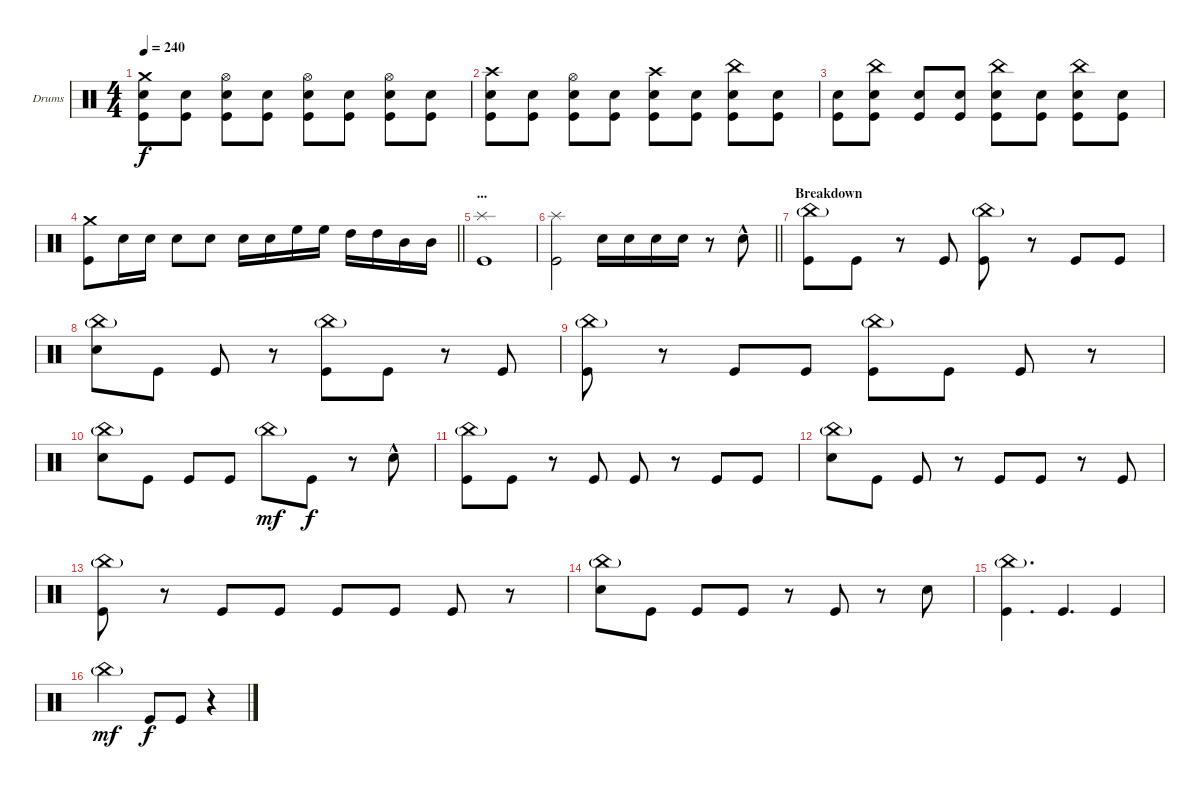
\bracketExtendMode groupsimilarinstruments
\firstSystemTrackNameOrientation horizontal
\otherSystemsTrackNameOrientation horizontal
\track ("Drumkit" "Drums") {instrument percussion}
\staff {score}
\articulation defaults
\ts (4 4)
\tempo 240
\clef neutral
\ks c
("Crash medium (hit)" "Snare (hit) 2" "Kick (hit)").8{dy f} ("Snare (hit) 2" "Kick (hit)").8 ("Hi-Hat (open)" "Snare (hit) 2" "Kick (hit)").8 ("Snare (hit) 2" "Kick (hit)").8 ("Hi-Hat (open)" "Snare (hit) 2" "Kick (hit)").8 ("Snare (hit) 2" "Kick (hit)").8 ("Hi-Hat (open)" "Snare (hit) 2" "Kick (hit)").8 ("Snare (hit) 2" "Kick (hit)").8 |
("Crash high (hit)" "Snare (hit) 2" "Kick (hit)").8 ("Snare (hit) 2" "Kick (hit)").8 ("Hi-Hat (open)" "Snare (hit) 2" "Kick (hit)").8 ("Snare (hit) 2" "Kick (hit)").8 ("Crash high (hit)" "Snare (hit) 2" "Kick (hit)").8 ("Snare (hit) 2" "Kick (hit)").8 ("China (hit)" "Snare (hit) 2" "Kick (hit)").8 ("Snare (hit) 2" "Kick (hit)").8 |
("Snare (hit) 2" "Kick (hit)").8 ("China (hit)" "Snare (hit) 2" "Kick (hit)").8 ("Snare (hit) 2" "Kick (hit)").8 ("Snare (hit) 2" "Kick (hit)").8 ("China (hit)" "Snare (hit) 2" "Kick (hit)").8 ("Snare (hit) 2" "Kick (hit)").8 ("China (hit)" "Snare (hit) 2" "Kick (hit)").8 ("Snare (hit) 2" "Kick (hit)").8 |
\barLineRight lightlight
("Crash medium (hit)" "Kick (hit)").8 "Snare (hit) 2".16 "Snare (hit) 2".16 "Snare (hit) 2".8 "Snare (hit) 2".8 "Snare (hit) 2".16 "Snare (hit) 2".16 "High Floor Tom (hit)".16 "High Floor Tom (hit)".16 "High Tom (hit)".16 "High Tom (hit)".16 "Mid Tom (hit)".16 "Mid Tom (hit)".16 |
\section ("" "...")
("Splash (hit)" "Kick (hit)").1 |
\barLineRight lightlight
("Splash (hit)" "Kick (hit)").2 "Snare (hit) 2".16 "Snare (hit) 2".16 "Snare (hit) 2".16 "Snare (hit) 2".16 r.8 "Snare (hit) 2"{hac}.8 |
\section ("" "Breakdown")
("China (hit)"{g} "Kick (hit)").8 "Kick (hit)".8 r.8 "Kick (hit)".8 ("China (hit)"{g} "Kick (hit)").8 r.8 "Kick (hit)".8 "Kick (hit)".8 |
("China (hit)"{g} "Snare (hit) 2").8 "Kick (hit)".8 "Kick (hit)".8 r.8 ("China (hit)"{g} "Kick (hit)").8 "Kick (hit)".8 r.8 "Kick (hit)".8 |
("China (hit)"{g} "Kick (hit)").8 r.8 "Kick (hit)".8 "Kick (hit)".8 ("China (hit)"{g} "Kick (hit)").8 "Kick (hit)".8 "Kick (hit)".8 r.8 |
("China (hit)"{g} "Snare (hit) 2").8 "Kick (hit)".8 "Kick (hit)".8 "Kick (hit)".8 "China (hit)"{g}.8{dy mf} "Kick (hit)".8{dy f} r.8 "Snare (hit) 2"{hac}.8 |
("China (hit)"{g} "Kick (hit)").8 "Kick (hit)".8 r.8 "Kick (hit)".8 "Kick (hit)".8 r.8 "Kick (hit)".8 "Kick (hit)".8 |
("China (hit)"{g} "Snare (hit) 2").8 "Kick (hit)".8 "Kick (hit)".8 r.8 "Kick (hit)".8 "Kick (hit)".8 r.8 "Kick (hit)".8 |
("China (hit)"{g} "Kick (hit)").8 r.8 "Kick (hit)".8 "Kick (hit)".8 "Kick (hit)".8 "Kick (hit)".8 "Kick (hit)".8 r.8 |
("China (hit)"{g} "Snare (hit) 2").8 "Kick (hit)".8 "Kick (hit)".8 "Kick (hit)".8 r.8 "Kick (hit)".8 r.8 "Snare (hit) 2".8 |
("China (hit)"{g} "Kick (hit)").4{d} "Kick (hit)".4{d} "Kick (hit)".4 |
"China (hit)"{g}.2{dy mf} "Kick (hit)".8{dy f} "Kick (hit)".8 r.4
